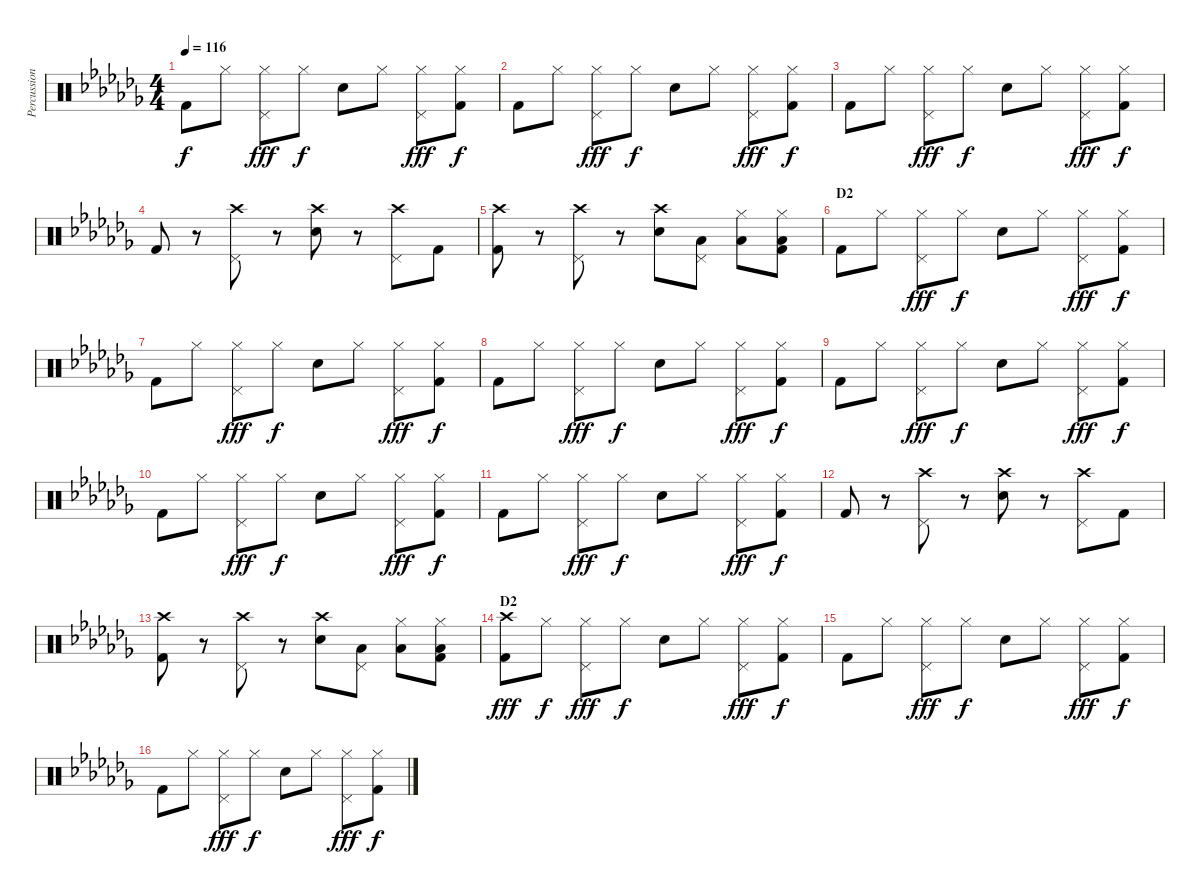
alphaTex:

\track ("Percussions" "Percussion") {instrument percussion}
\staff {score}
\articulation defaults
\ts (4 4)
\tempo 116
\clef neutral
\ks abminor "Kick (hit) 2".8{dy f} "Hi-Hat (closed)".8
("Hi-Hat (closed)" "Pedal Hi-Hat (hit)").8{dy fff} "Hi-Hat (closed)".8{dy f} "Snare (hit) 2".8 "Hi-Hat (closed)".8 ("Hi-Hat (closed)" "Pedal Hi-Hat (hit)").8{dy fff} ("Hi-Hat (closed)" "Kick (hit) 2").8{dy f} |
"Kick (hit) 2".8 "Hi-Hat (closed)".8 ("Hi-Hat (closed)" "Pedal Hi-Hat (hit)").8{dy fff} "Hi-Hat (closed)".8{dy f} "Snare (hit) 2".8 "Hi-Hat (closed)".8 ("Hi-Hat (closed)" "Pedal Hi-Hat (hit)").8{dy fff} ("Hi-Hat (closed)" "Kick (hit) 2").8{dy f} |
"Kick (hit) 2".8 "Hi-Hat (closed)".8 ("Hi-Hat (closed)" "Pedal Hi-Hat (hit)").8{dy fff} "Hi-Hat (closed)".8{dy f} "Snare (hit) 2".8 "Hi-Hat (closed)".8 ("Hi-Hat (closed)" "Pedal Hi-Hat (hit)").8{dy fff} ("Hi-Hat (closed)" "Kick (hit) 2").8{dy f} |
"Kick (hit) 2".8 r.8 ("Crash high (hit)" "Pedal Hi-Hat (hit)").8 r.8 ("Crash high (hit)" "Snare (hit) 2").8 r.8 ("Crash high (hit)" "Pedal Hi-Hat (hit)").8 "Kick (hit) 2".8 |
("Crash high (hit)" "Kick (hit) 2").8 r.8 ("Crash high (hit)" "Pedal Hi-Hat (hit)").8 r.8 ("Crash high (hit)" "Snare (hit) 2").8 ("Pedal Hi-Hat (hit)" "Low Floor Tom (hit)").8 ("Hi-Hat (closed)" "Low Tom (hit)").8 ("Hi-Hat (closed)" "Low Floor Tom (hit)" "Kick (hit) 2").8 |
\section ("" "D2")
"Kick (hit) 2".8 "Hi-Hat (closed)".8 ("Hi-Hat (closed)" "Pedal Hi-Hat (hit)").8{dy fff} "Hi-Hat (closed)".8{dy f} "Snare (hit) 2".8 "Hi-Hat (closed)".8 ("Hi-Hat (closed)" "Pedal Hi-Hat (hit)").8{dy fff} ("Hi-Hat (closed)" "Kick (hit) 2").8{dy f} |
"Kick (hit) 2".8 "Hi-Hat (closed)".8 ("Hi-Hat (closed)" "Pedal Hi-Hat (hit)").8{dy fff} "Hi-Hat (closed)".8{dy f} "Snare (hit) 2".8 "Hi-Hat (closed)".8 ("Hi-Hat (closed)" "Pedal Hi-Hat (hit)").8{dy fff} ("Hi-Hat (closed)" "Kick (hit) 2").8{dy f} |
"Kick (hit) 2".8 "Hi-Hat (closed)".8 ("Hi-Hat (closed)" "Pedal Hi-Hat (hit)").8{dy fff} "Hi-Hat (closed)".8{dy f} "Snare (hit) 2".8 "Hi-Hat (closed)".8 ("Hi-Hat (closed)" "Pedal Hi-Hat (hit)").8{dy fff} ("Hi-Hat (closed)" "Kick (hit) 2").8{dy f} |
"Kick (hit) 2".8 "Hi-Hat (closed)".8 ("Hi-Hat (closed)" "Pedal Hi-Hat (hit)").8{dy fff} "Hi-Hat (closed)".8{dy f} "Snare (hit) 2".8 "Hi-Hat (closed)".8 ("Hi-Hat (closed)" "Pedal Hi-Hat (hit)").8{dy fff} ("Hi-Hat (closed)" "Kick (hit) 2").8{dy f} |
"Kick (hit) 2".8 "Hi-Hat (closed)".8 ("Hi-Hat (closed)" "Pedal Hi-Hat (hit)").8{dy fff} "Hi-Hat (closed)".8{dy f} "Snare (hit) 2".8 "Hi-Hat (closed)".8 ("Hi-Hat (closed)" "Pedal Hi-Hat (hit)").8{dy fff} ("Hi-Hat (closed)" "Kick (hit) 2").8{dy f} |
"Kick (hit) 2".8 "Hi-Hat (closed)".8 ("Hi-Hat (closed)" "Pedal Hi-Hat (hit)").8{dy fff} "Hi-Hat (closed)".8{dy f} "Snare (hit) 2".8 "Hi-Hat (closed)".8 ("Hi-Hat (closed)" "Pedal Hi-Hat (hit)").8{dy fff} ("Hi-Hat (closed)" "Kick (hit) 2").8{dy f} |
"Kick (hit) 2".8 r.8 ("Crash high (hit)" "Pedal Hi-Hat (hit)").8 r.8 ("Crash high (hit)" "Snare (hit) 2").8 r.8 ("Crash high (hit)" "Pedal Hi-Hat (hit)").8 "Kick (hit) 2".8 |
("Crash high (hit)" "Kick (hit) 2").8 r.8 ("Crash high (hit)" "Pedal Hi-Hat (hit)").8 r.8 ("Crash high (hit)" "Snare (hit) 2").8 ("Pedal Hi-Hat (hit)" "Low Floor Tom (hit)").8 ("Hi-Hat (closed)" "Low Tom (hit)").8 ("Hi-Hat (closed)" "Low Floor Tom (hit)" "Kick (hit) 2").8 |
\section ("" "D2")
("Crash high (hit)" "Kick (hit) 2").8{dy fff} "Hi-Hat (closed)".8{dy f} ("Hi-Hat (closed)" "Pedal Hi-Hat (hit)").8{dy fff} "Hi-Hat (closed)".8{dy f} "Snare (hit) 2".8 "Hi-Hat (closed)".8 ("Hi-Hat (closed)" "Pedal Hi-Hat (hit)").8{dy fff} ("Hi-Hat (closed)" "Kick (hit) 2").8{dy f} |
"Kick (hit) 2".8 "Hi-Hat (closed)".8 ("Hi-Hat (closed)" "Pedal Hi-Hat (hit)").8{dy fff} "Hi-Hat (closed)".8{dy f} "Snare (hit) 2".8 "Hi-Hat (closed)".8 ("Hi-Hat (closed)" "Pedal Hi-Hat (hit)").8{dy fff} ("Hi-Hat (closed)" "Kick (hit) 2").8{dy f} |
"Kick (hit) 2".8 "Hi-Hat (closed)".8 ("Hi-Hat (closed)" "Pedal Hi-Hat (hit)").8{dy fff} "Hi-Hat (closed)".8{dy f} "Snare (hit) 2".8 "Hi-Hat (closed)".8 ("Hi-Hat (closed)" "Pedal Hi-Hat (hit)").8{dy fff} ("Hi-Hat (closed)" "Kick (hit) 2").8{dy f}
